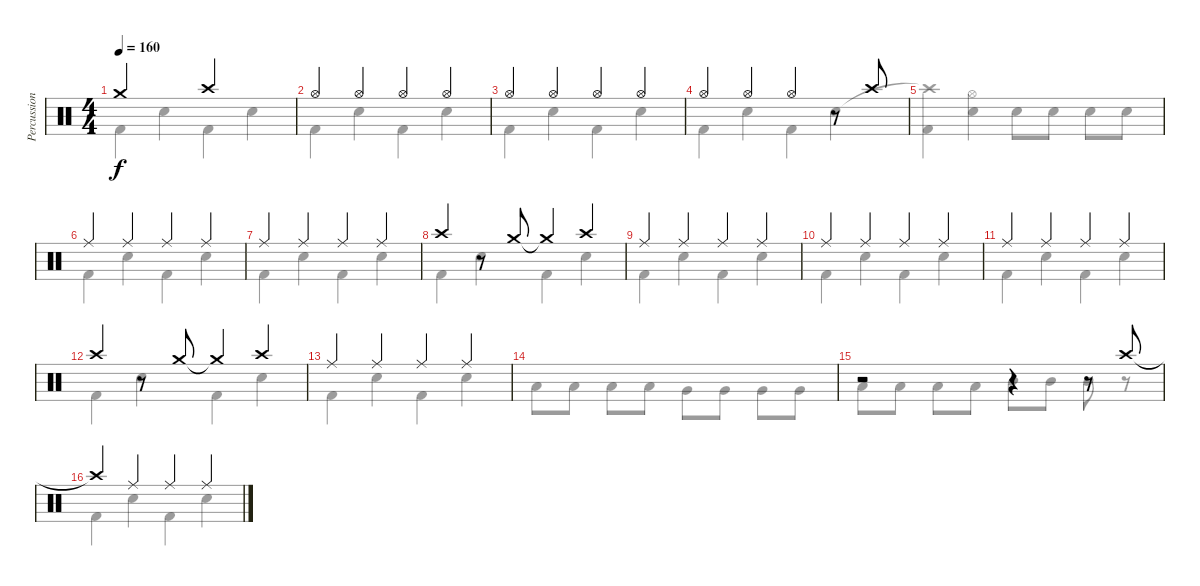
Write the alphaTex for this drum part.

\track ("Percussion" "Percussion") {instrument percussion}
\staff {score}
\articulation defaults
\voice
\ts (4 4)
\tempo 160
\clef neutral
\ks c "Crash medium (hit)".2{dy f} "Crash high (hit)".2
|
"Hi-Hat (open)".4 "Hi-Hat (open)".4 "Hi-Hat (open)".4 "Hi-Hat (open)".4 |
"Hi-Hat (open)".4 "Hi-Hat (open)".4 "Hi-Hat (open)".4 "Hi-Hat (open)".4 |
"Hi-Hat (open)".4 "Hi-Hat (open)".4 "Hi-Hat (open)".4 r.8 "Crash high (hit)".8 |
|
"Ride (middle)".4 "Ride (middle)".4 "Ride (middle)".4 "Ride (middle)".4 |
"Ride (middle)".4 "Ride (middle)".4 "Ride (middle)".4 "Ride (middle)".4 |
"Crash high (hit)".4 r.8 "Crash medium (hit)".8 "Crash medium (hit)"{t}.4 "Crash high (hit)".4 |
"Ride (middle)".4 "Ride (middle)".4 "Ride (middle)".4 "Ride (middle)".4 |
"Ride (middle)".4 "Ride (middle)".4 "Ride (middle)".4 "Ride (middle)".4 |
"Ride (middle)".4 "Ride (middle)".4 "Ride (middle)".4 "Ride (middle)".4 |
"Crash high (hit)".4 r.8 "Crash medium (hit)".8 "Crash medium (hit)"{t}.4 "Crash high (hit)".4 |
"Ride (middle)".4 "Ride (middle)".4 "Ride (middle)".4 "Ride (middle)".4 |
|
r.2 r.4 r.8 "Crash high (hit)".8 |
"Crash high (hit)"{t}.4 "Ride (middle)".4 "Ride (middle)".4 "Ride (middle)".4
\voice
\clef neutral
\ottava regular
\simile none
\ks c "Kick (hit) 2".4{dy f} "Snare (hit) 2".4 "Kick (hit) 2".4 "Snare (hit) 2".4
|
"Kick (hit) 2".4 "Snare (hit) 2".4 "Kick (hit) 2".4 "Snare (hit) 2".4 |
"Kick (hit) 2".4 "Snare (hit) 2".4 "Kick (hit) 2".4 "Snare (hit) 2".4 |
"Kick (hit) 2".4 "Snare (hit) 2".4 "Kick (hit) 2".4 "Snare (hit) 2".4 |
("Crash high (hit)"{t} "Kick (hit) 2").4 ("Hi-Hat (open)" "Snare (hit) 2").4 "Snare (hit) 2".8 "Snare (hit) 2".8 "Snare (hit) 2".8 "Snare (hit) 2".8 |
"Kick (hit) 2".4 "Snare (hit) 2".4 "Kick (hit) 2".4 "Snare (hit) 2".4 |
"Kick (hit) 2".4 "Snare (hit) 2".4 "Kick (hit) 2".4 "Snare (hit) 2".4 |
"Kick (hit) 2".4 "Snare (hit) 2".4 "Kick (hit) 2".4 "Snare (hit) 2".4 |
"Kick (hit) 2".4 "Snare (hit) 2".4 "Kick (hit) 2".4 "Snare (hit) 2".4 |
"Kick (hit) 2".4 "Snare (hit) 2".4 "Kick (hit) 2".4 "Snare (hit) 2".4 |
"Kick (hit) 2".4 "Snare (hit) 2".4 "Kick (hit) 2".4 "Snare (hit) 2".4 |
"Kick (hit) 2".4 "Snare (hit) 2".4 "Kick (hit) 2".4 "Snare (hit) 2".4 |
"Kick (hit) 2".4 "Snare (hit) 2".4 "Kick (hit) 2".4 "Snare (hit) 2".4 |
"Low Floor Tom (hit)".8 "Low Floor Tom (hit)".8 "Low Floor Tom (hit)".8 "Low Floor Tom (hit)".8 "Very Low Tom (hit)".8 "Very Low Tom (hit)".8 "Very Low Tom (hit)".8 "Very Low Tom (hit)".8 |
"Low Tom (hit)".8 "Low Tom (hit)".8 "Low Tom (hit)".8 "Low Tom (hit)".8 "Mid Tom (hit)".8 "Mid Tom (hit)".8 "Mid Tom (hit)".8 r.8 |
"Kick (hit) 2".4 "Snare (hit) 2".4 "Kick (hit) 2".4 "Snare (hit) 2".4
